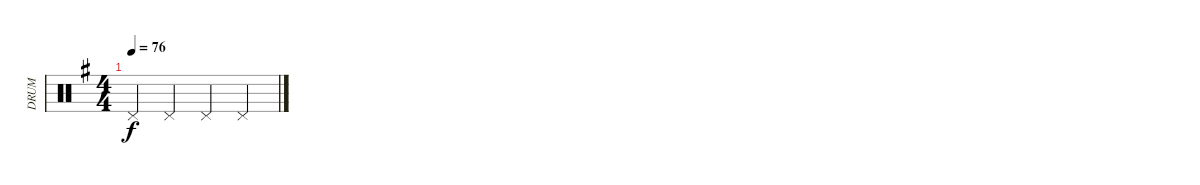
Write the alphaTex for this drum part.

\track ("DRUM" "DRUM") {instrument percussion}
\staff {score}
\articulation defaults
\ts (4 4)
\tempo 76
\clef neutral
\ks eminor "Pedal Hi-Hat (hit)".4{dy f} "Pedal Hi-Hat (hit)".4 "Pedal Hi-Hat (hit)".4 "Pedal Hi-Hat (hit)".4
